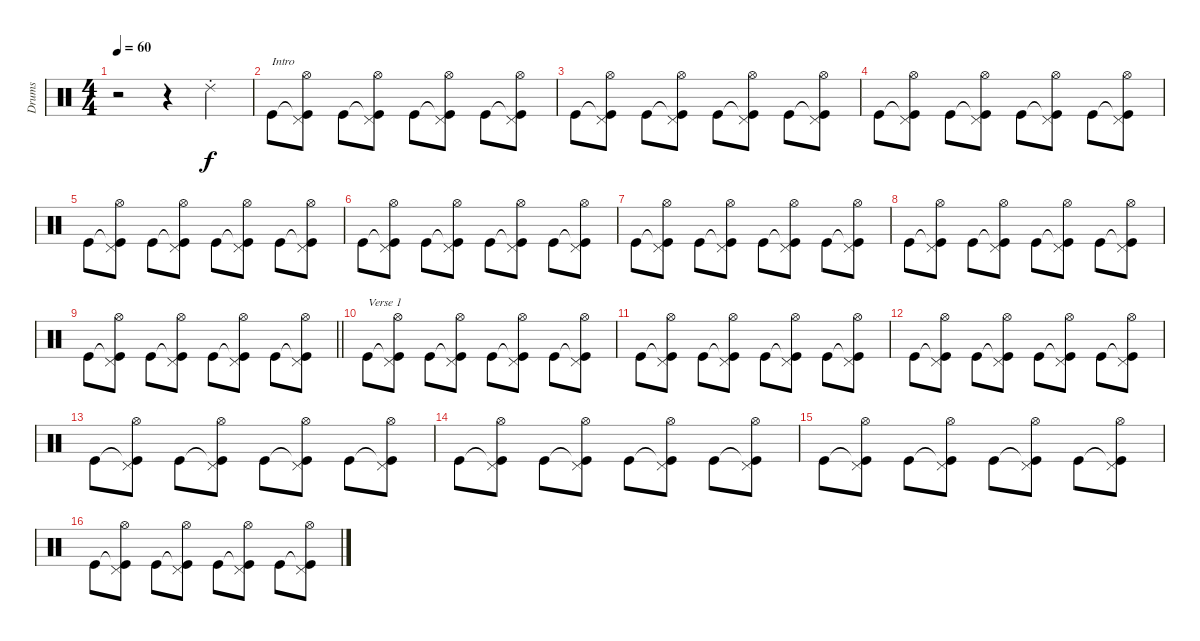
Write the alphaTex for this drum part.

\track ("Drums" "Drums") {instrument percussion}
\staff {score}
\articulation defaults
\ts (4 4)
\tempo 60
\clef neutral
\ks c
r.2{dy f} r.4 "Ride (choke) 2".4 |
"Kick (hit)".8{txt "Intro"} ("Kick (hit)"{t} "Pedal Hi-Hat (hit)" "Hi-Hat (open)").8 "Kick (hit)".8 ("Kick (hit)"{t} "Pedal Hi-Hat (hit)" "Hi-Hat (open)").8 "Kick (hit)".8 ("Kick (hit)"{t} "Pedal Hi-Hat (hit)" "Hi-Hat (open)").8 "Kick (hit)".8 ("Kick (hit)"{t} "Pedal Hi-Hat (hit)" "Hi-Hat (open)").8 |
"Kick (hit)".8 ("Kick (hit)"{t} "Pedal Hi-Hat (hit)" "Hi-Hat (open)").8 "Kick (hit)".8 ("Kick (hit)"{t} "Pedal Hi-Hat (hit)" "Hi-Hat (open)").8 "Kick (hit)".8 ("Kick (hit)"{t} "Pedal Hi-Hat (hit)" "Hi-Hat (open)").8 "Kick (hit)".8 ("Kick (hit)"{t} "Pedal Hi-Hat (hit)" "Hi-Hat (open)").8 |
"Kick (hit)".8 ("Kick (hit)"{t} "Pedal Hi-Hat (hit)" "Hi-Hat (open)").8 "Kick (hit)".8 ("Kick (hit)"{t} "Pedal Hi-Hat (hit)" "Hi-Hat (open)").8 "Kick (hit)".8 ("Kick (hit)"{t} "Pedal Hi-Hat (hit)" "Hi-Hat (open)").8 "Kick (hit)".8 ("Kick (hit)"{t} "Pedal Hi-Hat (hit)" "Hi-Hat (open)").8 |
"Kick (hit)".8 ("Kick (hit)"{t} "Pedal Hi-Hat (hit)" "Hi-Hat (open)").8 "Kick (hit)".8 ("Kick (hit)"{t} "Pedal Hi-Hat (hit)" "Hi-Hat (open)").8 "Kick (hit)".8 ("Kick (hit)"{t} "Pedal Hi-Hat (hit)" "Hi-Hat (open)").8 "Kick (hit)".8 ("Kick (hit)"{t} "Pedal Hi-Hat (hit)" "Hi-Hat (open)").8 |
"Kick (hit)".8 ("Kick (hit)"{t} "Pedal Hi-Hat (hit)" "Hi-Hat (open)").8 "Kick (hit)".8 ("Kick (hit)"{t} "Pedal Hi-Hat (hit)" "Hi-Hat (open)").8 "Kick (hit)".8 ("Kick (hit)"{t} "Pedal Hi-Hat (hit)" "Hi-Hat (open)").8 "Kick (hit)".8 ("Kick (hit)"{t} "Pedal Hi-Hat (hit)" "Hi-Hat (open)").8 |
"Kick (hit)".8 ("Kick (hit)"{t} "Pedal Hi-Hat (hit)" "Hi-Hat (open)").8 "Kick (hit)".8 ("Kick (hit)"{t} "Pedal Hi-Hat (hit)" "Hi-Hat (open)").8 "Kick (hit)".8 ("Kick (hit)"{t} "Pedal Hi-Hat (hit)" "Hi-Hat (open)").8 "Kick (hit)".8 ("Kick (hit)"{t} "Pedal Hi-Hat (hit)" "Hi-Hat (open)").8 |
"Kick (hit)".8 ("Kick (hit)"{t} "Pedal Hi-Hat (hit)" "Hi-Hat (open)").8 "Kick (hit)".8 ("Kick (hit)"{t} "Pedal Hi-Hat (hit)" "Hi-Hat (open)").8 "Kick (hit)".8 ("Kick (hit)"{t} "Pedal Hi-Hat (hit)" "Hi-Hat (open)").8 "Kick (hit)".8 ("Kick (hit)"{t} "Pedal Hi-Hat (hit)" "Hi-Hat (open)").8 |
\barLineRight lightlight "Kick (hit)".8
("Kick (hit)"{t} "Pedal Hi-Hat (hit)" "Hi-Hat (open)").8 "Kick (hit)".8 ("Kick (hit)"{t} "Pedal Hi-Hat (hit)" "Hi-Hat (open)").8 "Kick (hit)".8 ("Kick (hit)"{t} "Pedal Hi-Hat (hit)" "Hi-Hat (open)").8 "Kick (hit)".8 ("Kick (hit)"{t} "Pedal Hi-Hat (hit)" "Hi-Hat (open)").8 |
"Kick (hit)".8{txt "Verse 1"} ("Kick (hit)"{t} "Pedal Hi-Hat (hit)" "Hi-Hat (open)").8 "Kick (hit)".8 ("Kick (hit)"{t} "Pedal Hi-Hat (hit)" "Hi-Hat (open)").8 "Kick (hit)".8 ("Kick (hit)"{t} "Pedal Hi-Hat (hit)" "Hi-Hat (open)").8 "Kick (hit)".8 ("Kick (hit)"{t} "Pedal Hi-Hat (hit)" "Hi-Hat (open)").8 |
"Kick (hit)".8 ("Kick (hit)"{t} "Pedal Hi-Hat (hit)" "Hi-Hat (open)").8 "Kick (hit)".8 ("Kick (hit)"{t} "Pedal Hi-Hat (hit)" "Hi-Hat (open)").8 "Kick (hit)".8 ("Kick (hit)"{t} "Pedal Hi-Hat (hit)" "Hi-Hat (open)").8 "Kick (hit)".8 ("Kick (hit)"{t} "Pedal Hi-Hat (hit)" "Hi-Hat (open)").8 |
"Kick (hit)".8 ("Kick (hit)"{t} "Pedal Hi-Hat (hit)" "Hi-Hat (open)").8 "Kick (hit)".8 ("Kick (hit)"{t} "Pedal Hi-Hat (hit)" "Hi-Hat (open)").8 "Kick (hit)".8 ("Kick (hit)"{t} "Pedal Hi-Hat (hit)" "Hi-Hat (open)").8 "Kick (hit)".8 ("Kick (hit)"{t} "Pedal Hi-Hat (hit)" "Hi-Hat (open)").8 |
"Kick (hit)".8 ("Kick (hit)"{t} "Pedal Hi-Hat (hit)" "Hi-Hat (open)").8 "Kick (hit)".8 ("Kick (hit)"{t} "Pedal Hi-Hat (hit)" "Hi-Hat (open)").8 "Kick (hit)".8 ("Kick (hit)"{t} "Pedal Hi-Hat (hit)" "Hi-Hat (open)").8 "Kick (hit)".8 ("Kick (hit)"{t} "Pedal Hi-Hat (hit)" "Hi-Hat (open)").8 |
"Kick (hit)".8 ("Kick (hit)"{t} "Pedal Hi-Hat (hit)" "Hi-Hat (open)").8 "Kick (hit)".8 ("Kick (hit)"{t} "Pedal Hi-Hat (hit)" "Hi-Hat (open)").8 "Kick (hit)".8 ("Kick (hit)"{t} "Pedal Hi-Hat (hit)" "Hi-Hat (open)").8 "Kick (hit)".8 ("Kick (hit)"{t} "Pedal Hi-Hat (hit)" "Hi-Hat (open)").8 |
"Kick (hit)".8 ("Kick (hit)"{t} "Pedal Hi-Hat (hit)" "Hi-Hat (open)").8 "Kick (hit)".8 ("Kick (hit)"{t} "Pedal Hi-Hat (hit)" "Hi-Hat (open)").8 "Kick (hit)".8 ("Kick (hit)"{t} "Pedal Hi-Hat (hit)" "Hi-Hat (open)").8 "Kick (hit)".8 ("Kick (hit)"{t} "Pedal Hi-Hat (hit)" "Hi-Hat (open)").8 |
"Kick (hit)".8 ("Kick (hit)"{t} "Pedal Hi-Hat (hit)" "Hi-Hat (open)").8 "Kick (hit)".8 ("Kick (hit)"{t} "Pedal Hi-Hat (hit)" "Hi-Hat (open)").8 "Kick (hit)".8 ("Kick (hit)"{t} "Pedal Hi-Hat (hit)" "Hi-Hat (open)").8 "Kick (hit)".8 ("Kick (hit)"{t} "Pedal Hi-Hat (hit)" "Hi-Hat (open)").8
